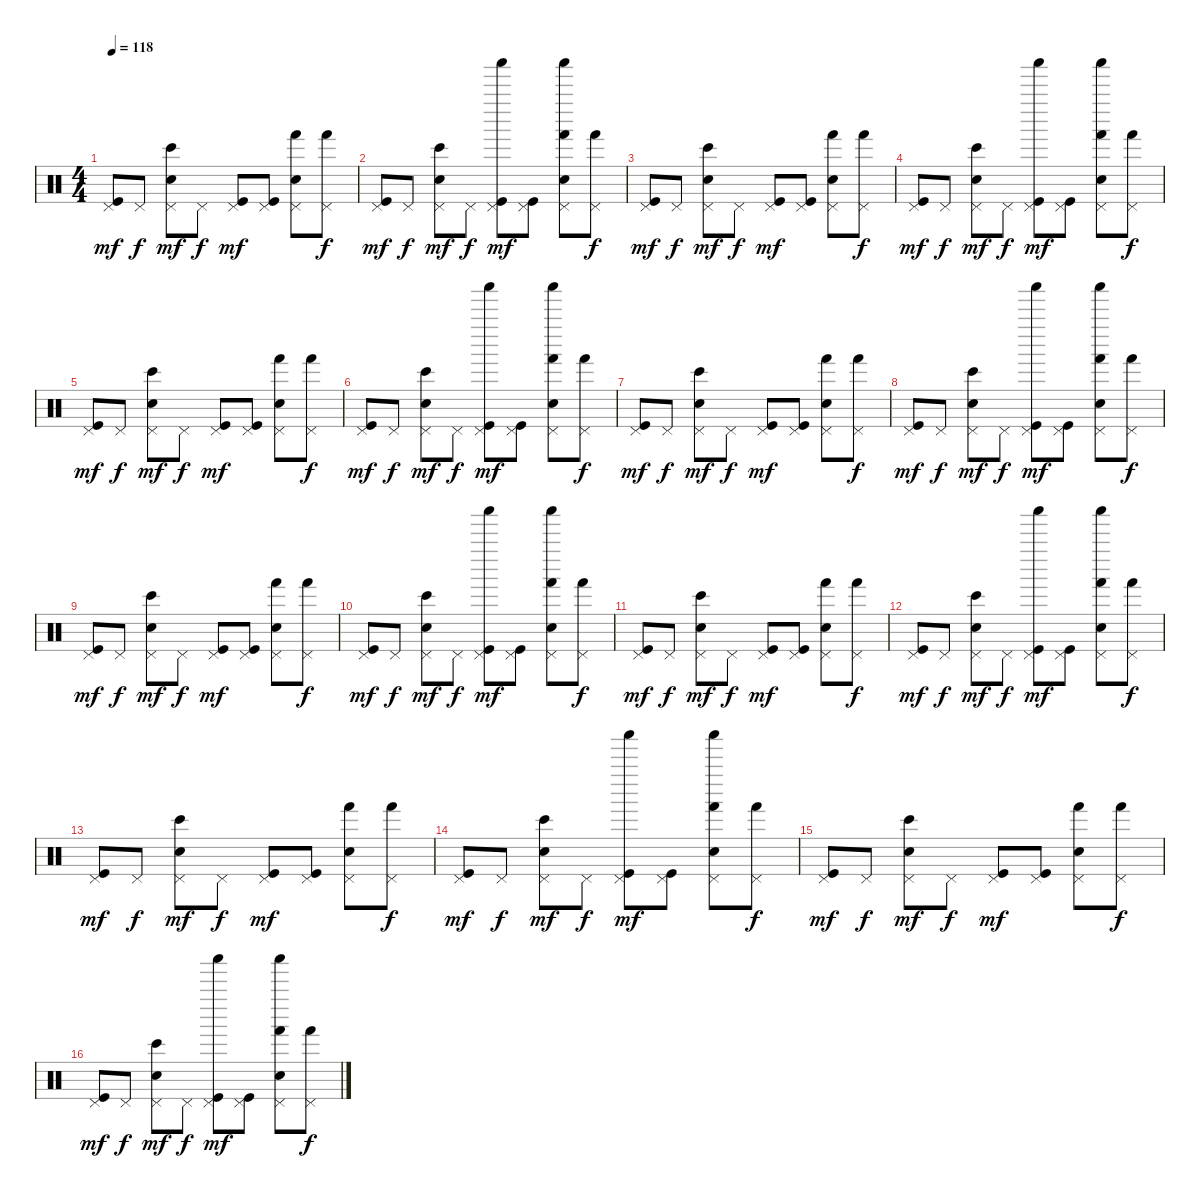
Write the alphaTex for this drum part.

\track "" {instrument percussion}
\staff {score}
\articulation defaults
\ts (4 4)
\tempo 118
\clef neutral
\ks c
("Pedal Hi-Hat (hit)" "Kick (hit)").8{dy mf} "Pedal Hi-Hat (hit)".8{dy f} ("Pedal Hi-Hat (hit)" "Snare (hit) 2" "Bongo High (hit)").8{dy mf} "Pedal Hi-Hat (hit)".8{dy f} ("Pedal Hi-Hat (hit)" "Kick (hit)").8{dy mf} ("Pedal Hi-Hat (hit)" "Kick (hit)").8 ("Pedal Hi-Hat (hit)" "Snare (hit) 2" "Hand (hit)").8 ("Pedal Hi-Hat (hit)" "Hand (hit)").8{dy f} |
("Pedal Hi-Hat (hit)" "Kick (hit)").8{dy mf} "Pedal Hi-Hat (hit)".8{dy f} ("Pedal Hi-Hat (hit)" "Snare (hit) 2" "Bongo High (hit)").8{dy mf} "Pedal Hi-Hat (hit)".8{dy f} ("Pedal Hi-Hat (hit)" "Kick (hit)" "Shaker (hit)").8{dy mf} ("Pedal Hi-Hat (hit)" "Kick (hit)").8 ("Pedal Hi-Hat (hit)" "Snare (hit) 2" "Hand (hit)" "Shaker (hit)").8 ("Pedal Hi-Hat (hit)" "Hand (hit)").8{dy f} |
("Pedal Hi-Hat (hit)" "Kick (hit)").8{dy mf} "Pedal Hi-Hat (hit)".8{dy f} ("Pedal Hi-Hat (hit)" "Snare (hit) 2" "Bongo High (hit)").8{dy mf} "Pedal Hi-Hat (hit)".8{dy f} ("Pedal Hi-Hat (hit)" "Kick (hit)").8{dy mf} ("Pedal Hi-Hat (hit)" "Kick (hit)").8 ("Pedal Hi-Hat (hit)" "Snare (hit) 2" "Hand (hit)").8 ("Pedal Hi-Hat (hit)" "Hand (hit)").8{dy f} |
("Pedal Hi-Hat (hit)" "Kick (hit)").8{dy mf} "Pedal Hi-Hat (hit)".8{dy f} ("Pedal Hi-Hat (hit)" "Snare (hit) 2" "Bongo High (hit)").8{dy mf} "Pedal Hi-Hat (hit)".8{dy f} ("Pedal Hi-Hat (hit)" "Kick (hit)" "Shaker (hit)").8{dy mf} ("Pedal Hi-Hat (hit)" "Kick (hit)").8 ("Pedal Hi-Hat (hit)" "Snare (hit) 2" "Hand (hit)" "Shaker (hit)").8 ("Pedal Hi-Hat (hit)" "Hand (hit)").8{dy f} |
("Pedal Hi-Hat (hit)" "Kick (hit)").8{dy mf} "Pedal Hi-Hat (hit)".8{dy f} ("Pedal Hi-Hat (hit)" "Snare (hit) 2" "Bongo High (hit)").8{dy mf} "Pedal Hi-Hat (hit)".8{dy f} ("Pedal Hi-Hat (hit)" "Kick (hit)").8{dy mf} ("Pedal Hi-Hat (hit)" "Kick (hit)").8 ("Pedal Hi-Hat (hit)" "Snare (hit) 2" "Hand (hit)").8 ("Pedal Hi-Hat (hit)" "Hand (hit)").8{dy f} |
("Pedal Hi-Hat (hit)" "Kick (hit)").8{dy mf} "Pedal Hi-Hat (hit)".8{dy f} ("Pedal Hi-Hat (hit)" "Snare (hit) 2" "Bongo High (hit)").8{dy mf} "Pedal Hi-Hat (hit)".8{dy f} ("Pedal Hi-Hat (hit)" "Kick (hit)" "Shaker (hit)").8{dy mf} ("Pedal Hi-Hat (hit)" "Kick (hit)").8 ("Pedal Hi-Hat (hit)" "Snare (hit) 2" "Hand (hit)" "Shaker (hit)").8 ("Pedal Hi-Hat (hit)" "Hand (hit)").8{dy f} |
("Pedal Hi-Hat (hit)" "Kick (hit)").8{dy mf} "Pedal Hi-Hat (hit)".8{dy f} ("Pedal Hi-Hat (hit)" "Snare (hit) 2" "Bongo High (hit)").8{dy mf} "Pedal Hi-Hat (hit)".8{dy f} ("Pedal Hi-Hat (hit)" "Kick (hit)").8{dy mf} ("Pedal Hi-Hat (hit)" "Kick (hit)").8 ("Pedal Hi-Hat (hit)" "Snare (hit) 2" "Hand (hit)").8 ("Pedal Hi-Hat (hit)" "Hand (hit)").8{dy f} |
("Pedal Hi-Hat (hit)" "Kick (hit)").8{dy mf} "Pedal Hi-Hat (hit)".8{dy f} ("Pedal Hi-Hat (hit)" "Snare (hit) 2" "Bongo High (hit)").8{dy mf} "Pedal Hi-Hat (hit)".8{dy f} ("Pedal Hi-Hat (hit)" "Kick (hit)" "Shaker (hit)").8{dy mf} ("Pedal Hi-Hat (hit)" "Kick (hit)").8 ("Pedal Hi-Hat (hit)" "Snare (hit) 2" "Hand (hit)" "Shaker (hit)").8 ("Pedal Hi-Hat (hit)" "Hand (hit)").8{dy f} |
("Pedal Hi-Hat (hit)" "Kick (hit)").8{dy mf} "Pedal Hi-Hat (hit)".8{dy f} ("Pedal Hi-Hat (hit)" "Snare (hit) 2" "Bongo High (hit)").8{dy mf} "Pedal Hi-Hat (hit)".8{dy f} ("Pedal Hi-Hat (hit)" "Kick (hit)").8{dy mf} ("Pedal Hi-Hat (hit)" "Kick (hit)").8 ("Pedal Hi-Hat (hit)" "Snare (hit) 2" "Hand (hit)").8 ("Pedal Hi-Hat (hit)" "Hand (hit)").8{dy f} |
("Pedal Hi-Hat (hit)" "Kick (hit)").8{dy mf} "Pedal Hi-Hat (hit)".8{dy f} ("Pedal Hi-Hat (hit)" "Snare (hit) 2" "Bongo High (hit)").8{dy mf} "Pedal Hi-Hat (hit)".8{dy f} ("Pedal Hi-Hat (hit)" "Kick (hit)" "Shaker (hit)").8{dy mf} ("Pedal Hi-Hat (hit)" "Kick (hit)").8 ("Pedal Hi-Hat (hit)" "Snare (hit) 2" "Hand (hit)" "Shaker (hit)").8 ("Pedal Hi-Hat (hit)" "Hand (hit)").8{dy f} |
("Pedal Hi-Hat (hit)" "Kick (hit)").8{dy mf} "Pedal Hi-Hat (hit)".8{dy f} ("Pedal Hi-Hat (hit)" "Snare (hit) 2" "Bongo High (hit)").8{dy mf} "Pedal Hi-Hat (hit)".8{dy f} ("Pedal Hi-Hat (hit)" "Kick (hit)").8{dy mf} ("Pedal Hi-Hat (hit)" "Kick (hit)").8 ("Pedal Hi-Hat (hit)" "Snare (hit) 2" "Hand (hit)").8 ("Pedal Hi-Hat (hit)" "Hand (hit)").8{dy f} |
("Pedal Hi-Hat (hit)" "Kick (hit)").8{dy mf} "Pedal Hi-Hat (hit)".8{dy f} ("Pedal Hi-Hat (hit)" "Snare (hit) 2" "Bongo High (hit)").8{dy mf} "Pedal Hi-Hat (hit)".8{dy f} ("Pedal Hi-Hat (hit)" "Kick (hit)" "Shaker (hit)").8{dy mf} ("Pedal Hi-Hat (hit)" "Kick (hit)").8 ("Pedal Hi-Hat (hit)" "Snare (hit) 2" "Hand (hit)" "Shaker (hit)").8 ("Pedal Hi-Hat (hit)" "Hand (hit)").8{dy f} |
("Pedal Hi-Hat (hit)" "Kick (hit)").8{dy mf} "Pedal Hi-Hat (hit)".8{dy f} ("Pedal Hi-Hat (hit)" "Snare (hit) 2" "Bongo High (hit)").8{dy mf} "Pedal Hi-Hat (hit)".8{dy f} ("Pedal Hi-Hat (hit)" "Kick (hit)").8{dy mf} ("Pedal Hi-Hat (hit)" "Kick (hit)").8 ("Pedal Hi-Hat (hit)" "Snare (hit) 2" "Hand (hit)").8 ("Pedal Hi-Hat (hit)" "Hand (hit)").8{dy f} |
("Pedal Hi-Hat (hit)" "Kick (hit)").8{dy mf} "Pedal Hi-Hat (hit)".8{dy f} ("Pedal Hi-Hat (hit)" "Snare (hit) 2" "Bongo High (hit)").8{dy mf} "Pedal Hi-Hat (hit)".8{dy f} ("Pedal Hi-Hat (hit)" "Kick (hit)" "Shaker (hit)").8{dy mf} ("Pedal Hi-Hat (hit)" "Kick (hit)").8 ("Pedal Hi-Hat (hit)" "Snare (hit) 2" "Hand (hit)" "Shaker (hit)").8 ("Pedal Hi-Hat (hit)" "Hand (hit)").8{dy f} |
("Pedal Hi-Hat (hit)" "Kick (hit)").8{dy mf} "Pedal Hi-Hat (hit)".8{dy f} ("Pedal Hi-Hat (hit)" "Snare (hit) 2" "Bongo High (hit)").8{dy mf} "Pedal Hi-Hat (hit)".8{dy f} ("Pedal Hi-Hat (hit)" "Kick (hit)").8{dy mf} ("Pedal Hi-Hat (hit)" "Kick (hit)").8 ("Pedal Hi-Hat (hit)" "Snare (hit) 2" "Hand (hit)").8 ("Pedal Hi-Hat (hit)" "Hand (hit)").8{dy f} |
("Pedal Hi-Hat (hit)" "Kick (hit)").8{dy mf} "Pedal Hi-Hat (hit)".8{dy f} ("Pedal Hi-Hat (hit)" "Snare (hit) 2" "Bongo High (hit)").8{dy mf} "Pedal Hi-Hat (hit)".8{dy f} ("Pedal Hi-Hat (hit)" "Kick (hit)" "Shaker (hit)").8{dy mf} ("Pedal Hi-Hat (hit)" "Kick (hit)").8 ("Pedal Hi-Hat (hit)" "Snare (hit) 2" "Hand (hit)" "Shaker (hit)").8 ("Pedal Hi-Hat (hit)" "Hand (hit)").8{dy f}
